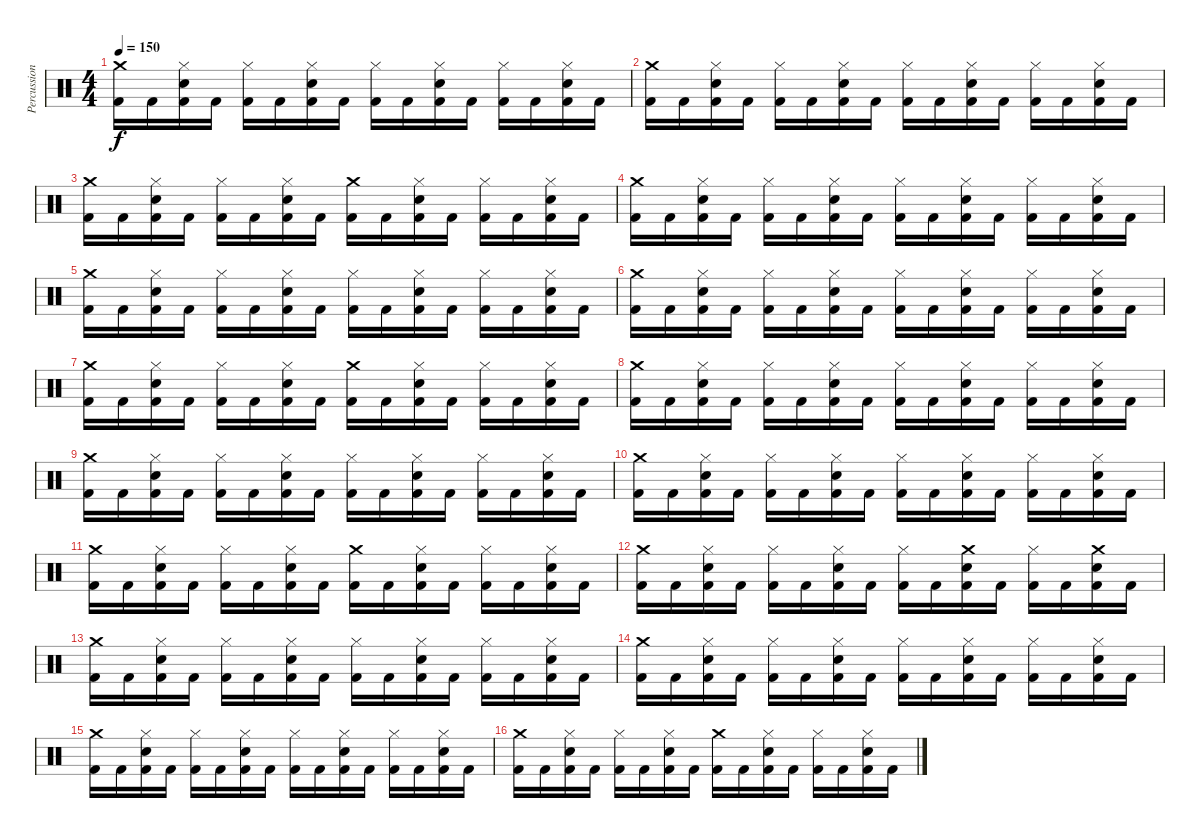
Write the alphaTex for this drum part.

\track ("Percussioni" "Percussion") {instrument percussion}
\staff {score}
\articulation defaults
\ts (4 4)
\tempo 150
\clef neutral
\ks c
("Crash medium (hit)" "Kick (hit) 2").16{dy f} "Kick (hit) 2".16 ("Hi-Hat (closed)" "Electric Snare (hit)" "Kick (hit) 2").16 "Kick (hit) 2".16 ("Hi-Hat (closed)" "Kick (hit) 2").16 "Kick (hit) 2".16 ("Hi-Hat (closed)" "Electric Snare (hit)" "Kick (hit) 2").16 "Kick (hit) 2".16 ("Hi-Hat (closed)" "Kick (hit) 2").16 "Kick (hit) 2".16 ("Hi-Hat (closed)" "Electric Snare (hit)" "Kick (hit) 2").16 "Kick (hit) 2".16 ("Hi-Hat (closed)" "Kick (hit) 2").16 "Kick (hit) 2".16 ("Hi-Hat (closed)" "Electric Snare (hit)" "Kick (hit) 2").16 "Kick (hit) 2".16 |
("Crash medium (hit)" "Kick (hit) 2").16 "Kick (hit) 2".16 ("Hi-Hat (closed)" "Electric Snare (hit)" "Kick (hit) 2").16 "Kick (hit) 2".16 ("Hi-Hat (closed)" "Kick (hit) 2").16 "Kick (hit) 2".16 ("Hi-Hat (closed)" "Electric Snare (hit)" "Kick (hit) 2").16 "Kick (hit) 2".16 ("Hi-Hat (closed)" "Kick (hit) 2").16 "Kick (hit) 2".16 ("Hi-Hat (closed)" "Electric Snare (hit)" "Kick (hit) 2").16 "Kick (hit) 2".16 ("Hi-Hat (closed)" "Kick (hit) 2").16 "Kick (hit) 2".16 ("Hi-Hat (closed)" "Electric Snare (hit)" "Kick (hit) 2").16 "Kick (hit) 2".16 |
("Crash medium (hit)" "Kick (hit) 2").16 "Kick (hit) 2".16 ("Hi-Hat (closed)" "Electric Snare (hit)" "Kick (hit) 2").16 "Kick (hit) 2".16 ("Hi-Hat (closed)" "Kick (hit) 2").16 "Kick (hit) 2".16 ("Hi-Hat (closed)" "Electric Snare (hit)" "Kick (hit) 2").16 "Kick (hit) 2".16 ("Crash medium (hit)" "Kick (hit) 2").16 "Kick (hit) 2".16 ("Hi-Hat (closed)" "Electric Snare (hit)" "Kick (hit) 2").16 "Kick (hit) 2".16 ("Hi-Hat (closed)" "Kick (hit) 2").16 "Kick (hit) 2".16 ("Hi-Hat (closed)" "Electric Snare (hit)" "Kick (hit) 2").16 "Kick (hit) 2".16 |
("Crash medium (hit)" "Kick (hit) 2").16 "Kick (hit) 2".16 ("Hi-Hat (closed)" "Electric Snare (hit)" "Kick (hit) 2").16 "Kick (hit) 2".16 ("Hi-Hat (closed)" "Kick (hit) 2").16 "Kick (hit) 2".16 ("Hi-Hat (closed)" "Electric Snare (hit)" "Kick (hit) 2").16 "Kick (hit) 2".16 ("Hi-Hat (closed)" "Kick (hit) 2").16 "Kick (hit) 2".16 ("Hi-Hat (closed)" "Electric Snare (hit)" "Kick (hit) 2").16 "Kick (hit) 2".16 ("Hi-Hat (closed)" "Kick (hit) 2").16 "Kick (hit) 2".16 ("Hi-Hat (closed)" "Electric Snare (hit)" "Kick (hit) 2").16 "Kick (hit) 2".16 |
("Crash medium (hit)" "Kick (hit) 2").16 "Kick (hit) 2".16 ("Hi-Hat (closed)" "Electric Snare (hit)" "Kick (hit) 2").16 "Kick (hit) 2".16 ("Hi-Hat (closed)" "Kick (hit) 2").16 "Kick (hit) 2".16 ("Hi-Hat (closed)" "Electric Snare (hit)" "Kick (hit) 2").16 "Kick (hit) 2".16 ("Hi-Hat (closed)" "Kick (hit) 2").16 "Kick (hit) 2".16 ("Hi-Hat (closed)" "Electric Snare (hit)" "Kick (hit) 2").16 "Kick (hit) 2".16 ("Hi-Hat (closed)" "Kick (hit) 2").16 "Kick (hit) 2".16 ("Hi-Hat (closed)" "Electric Snare (hit)" "Kick (hit) 2").16 "Kick (hit) 2".16 |
("Crash medium (hit)" "Kick (hit) 2").16 "Kick (hit) 2".16 ("Hi-Hat (closed)" "Electric Snare (hit)" "Kick (hit) 2").16 "Kick (hit) 2".16 ("Hi-Hat (closed)" "Kick (hit) 2").16 "Kick (hit) 2".16 ("Hi-Hat (closed)" "Electric Snare (hit)" "Kick (hit) 2").16 "Kick (hit) 2".16 ("Hi-Hat (closed)" "Kick (hit) 2").16 "Kick (hit) 2".16 ("Hi-Hat (closed)" "Electric Snare (hit)" "Kick (hit) 2").16 "Kick (hit) 2".16 ("Hi-Hat (closed)" "Kick (hit) 2").16 "Kick (hit) 2".16 ("Hi-Hat (closed)" "Electric Snare (hit)" "Kick (hit) 2").16 "Kick (hit) 2".16 |
("Crash medium (hit)" "Kick (hit) 2").16 "Kick (hit) 2".16 ("Hi-Hat (closed)" "Electric Snare (hit)" "Kick (hit) 2").16 "Kick (hit) 2".16 ("Hi-Hat (closed)" "Kick (hit) 2").16 "Kick (hit) 2".16 ("Hi-Hat (closed)" "Electric Snare (hit)" "Kick (hit) 2").16 "Kick (hit) 2".16 ("Crash medium (hit)" "Kick (hit) 2").16 "Kick (hit) 2".16 ("Hi-Hat (closed)" "Electric Snare (hit)" "Kick (hit) 2").16 "Kick (hit) 2".16 ("Hi-Hat (closed)" "Kick (hit) 2").16 "Kick (hit) 2".16 ("Hi-Hat (closed)" "Electric Snare (hit)" "Kick (hit) 2").16 "Kick (hit) 2".16 |
("Crash medium (hit)" "Kick (hit) 2").16 "Kick (hit) 2".16 ("Hi-Hat (closed)" "Electric Snare (hit)" "Kick (hit) 2").16 "Kick (hit) 2".16 ("Hi-Hat (closed)" "Kick (hit) 2").16 "Kick (hit) 2".16 ("Hi-Hat (closed)" "Electric Snare (hit)" "Kick (hit) 2").16 "Kick (hit) 2".16 ("Hi-Hat (closed)" "Kick (hit) 2").16 "Kick (hit) 2".16 ("Hi-Hat (closed)" "Electric Snare (hit)" "Kick (hit) 2").16 "Kick (hit) 2".16 ("Hi-Hat (closed)" "Kick (hit) 2").16 "Kick (hit) 2".16 ("Hi-Hat (closed)" "Electric Snare (hit)" "Kick (hit) 2").16 "Kick (hit) 2".16 |
("Crash medium (hit)" "Kick (hit) 2").16 "Kick (hit) 2".16 ("Hi-Hat (closed)" "Electric Snare (hit)" "Kick (hit) 2").16 "Kick (hit) 2".16 ("Hi-Hat (closed)" "Kick (hit) 2").16 "Kick (hit) 2".16 ("Hi-Hat (closed)" "Electric Snare (hit)" "Kick (hit) 2").16 "Kick (hit) 2".16 ("Hi-Hat (closed)" "Kick (hit) 2").16 "Kick (hit) 2".16 ("Hi-Hat (closed)" "Electric Snare (hit)" "Kick (hit) 2").16 "Kick (hit) 2".16 ("Hi-Hat (closed)" "Kick (hit) 2").16 "Kick (hit) 2".16 ("Hi-Hat (closed)" "Electric Snare (hit)" "Kick (hit) 2").16 "Kick (hit) 2".16 |
("Crash medium (hit)" "Kick (hit) 2").16 "Kick (hit) 2".16 ("Hi-Hat (closed)" "Electric Snare (hit)" "Kick (hit) 2").16 "Kick (hit) 2".16 ("Hi-Hat (closed)" "Kick (hit) 2").16 "Kick (hit) 2".16 ("Hi-Hat (closed)" "Electric Snare (hit)" "Kick (hit) 2").16 "Kick (hit) 2".16 ("Hi-Hat (closed)" "Kick (hit) 2").16 "Kick (hit) 2".16 ("Hi-Hat (closed)" "Electric Snare (hit)" "Kick (hit) 2").16 "Kick (hit) 2".16 ("Hi-Hat (closed)" "Kick (hit) 2").16 "Kick (hit) 2".16 ("Hi-Hat (closed)" "Electric Snare (hit)" "Kick (hit) 2").16 "Kick (hit) 2".16 |
("Crash medium (hit)" "Kick (hit) 2").16 "Kick (hit) 2".16 ("Hi-Hat (closed)" "Electric Snare (hit)" "Kick (hit) 2").16 "Kick (hit) 2".16 ("Hi-Hat (closed)" "Kick (hit) 2").16 "Kick (hit) 2".16 ("Hi-Hat (closed)" "Electric Snare (hit)" "Kick (hit) 2").16 "Kick (hit) 2".16 ("Crash medium (hit)" "Kick (hit) 2").16 "Kick (hit) 2".16 ("Hi-Hat (closed)" "Electric Snare (hit)" "Kick (hit) 2").16 "Kick (hit) 2".16 ("Hi-Hat (closed)" "Kick (hit) 2").16 "Kick (hit) 2".16 ("Hi-Hat (closed)" "Electric Snare (hit)" "Kick (hit) 2").16 "Kick (hit) 2".16 |
("Crash medium (hit)" "Kick (hit) 2").16 "Kick (hit) 2".16 ("Hi-Hat (closed)" "Electric Snare (hit)" "Kick (hit) 2").16 "Kick (hit) 2".16 ("Hi-Hat (closed)" "Kick (hit) 2").16 "Kick (hit) 2".16 ("Hi-Hat (closed)" "Electric Snare (hit)" "Kick (hit) 2").16 "Kick (hit) 2".16 ("Hi-Hat (closed)" "Kick (hit) 2").16 "Kick (hit) 2".16 ("Crash medium (hit)" "Electric Snare (hit)" "Kick (hit) 2").16 "Kick (hit) 2".16 ("Hi-Hat (closed)" "Kick (hit) 2").16 "Kick (hit) 2".16 ("Crash medium (hit)" "Electric Snare (hit)" "Kick (hit) 2").16 "Kick (hit) 2".16 |
("Crash medium (hit)" "Kick (hit) 2").16 "Kick (hit) 2".16 ("Hi-Hat (closed)" "Electric Snare (hit)" "Kick (hit) 2").16 "Kick (hit) 2".16 ("Hi-Hat (closed)" "Kick (hit) 2").16 "Kick (hit) 2".16 ("Hi-Hat (closed)" "Electric Snare (hit)" "Kick (hit) 2").16 "Kick (hit) 2".16 ("Hi-Hat (closed)" "Kick (hit) 2").16 "Kick (hit) 2".16 ("Hi-Hat (closed)" "Electric Snare (hit)" "Kick (hit) 2").16 "Kick (hit) 2".16 ("Hi-Hat (closed)" "Kick (hit) 2").16 "Kick (hit) 2".16 ("Hi-Hat (closed)" "Electric Snare (hit)" "Kick (hit) 2").16 "Kick (hit) 2".16 |
("Crash medium (hit)" "Kick (hit) 2").16 "Kick (hit) 2".16 ("Hi-Hat (closed)" "Electric Snare (hit)" "Kick (hit) 2").16 "Kick (hit) 2".16 ("Hi-Hat (closed)" "Kick (hit) 2").16 "Kick (hit) 2".16 ("Hi-Hat (closed)" "Electric Snare (hit)" "Kick (hit) 2").16 "Kick (hit) 2".16 ("Hi-Hat (closed)" "Kick (hit) 2").16 "Kick (hit) 2".16 ("Hi-Hat (closed)" "Electric Snare (hit)" "Kick (hit) 2").16 "Kick (hit) 2".16 ("Hi-Hat (closed)" "Kick (hit) 2").16 "Kick (hit) 2".16 ("Hi-Hat (closed)" "Electric Snare (hit)" "Kick (hit) 2").16 "Kick (hit) 2".16 |
("Crash medium (hit)" "Kick (hit) 2").16 "Kick (hit) 2".16 ("Hi-Hat (closed)" "Electric Snare (hit)" "Kick (hit) 2").16 "Kick (hit) 2".16 ("Hi-Hat (closed)" "Kick (hit) 2").16 "Kick (hit) 2".16 ("Hi-Hat (closed)" "Electric Snare (hit)" "Kick (hit) 2").16 "Kick (hit) 2".16 ("Hi-Hat (closed)" "Kick (hit) 2").16 "Kick (hit) 2".16 ("Hi-Hat (closed)" "Electric Snare (hit)" "Kick (hit) 2").16 "Kick (hit) 2".16 ("Hi-Hat (closed)" "Kick (hit) 2").16 "Kick (hit) 2".16 ("Hi-Hat (closed)" "Electric Snare (hit)" "Kick (hit) 2").16 "Kick (hit) 2".16 |
("Crash medium (hit)" "Kick (hit) 2").16 "Kick (hit) 2".16 ("Hi-Hat (closed)" "Electric Snare (hit)" "Kick (hit) 2").16 "Kick (hit) 2".16 ("Hi-Hat (closed)" "Kick (hit) 2").16 "Kick (hit) 2".16 ("Hi-Hat (closed)" "Electric Snare (hit)" "Kick (hit) 2").16 "Kick (hit) 2".16 ("Crash medium (hit)" "Kick (hit) 2").16 "Kick (hit) 2".16 ("Hi-Hat (closed)" "Electric Snare (hit)" "Kick (hit) 2").16 "Kick (hit) 2".16 ("Hi-Hat (closed)" "Kick (hit) 2").16 "Kick (hit) 2".16 ("Hi-Hat (closed)" "Electric Snare (hit)" "Kick (hit) 2").16 "Kick (hit) 2".16
